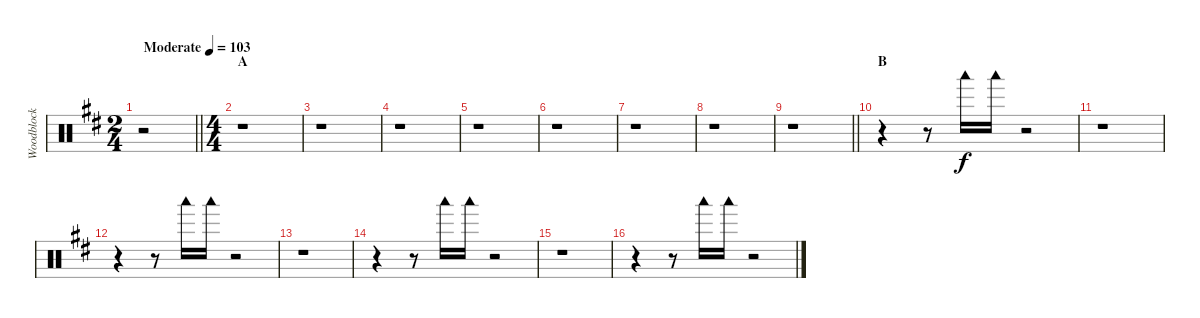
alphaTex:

\track ("Woodblock" "Woodblock") {instrument percussion}
\staff {score}
\articulation defaults
\ts (2 4)
\tempo (103 "Moderate")
\clef neutral
\barLineRight lightlight
\ks d
r.2{dy f} |
\ts (4 4)
\section ("" "A")
r.1 |
r.1 |
r.1 |
r.1 |
r.1 |
r.1 |
r.1 |
\barLineRight lightlight
r.1 |
\section ("" "B")
r.4 r.8 "Woodblock low (hit)".16 "Woodblock low (hit)".16 r.2 |
r.1 |
r.4 r.8 "Woodblock low (hit)".16 "Woodblock low (hit)".16 r.2 |
r.1 |
r.4 r.8 "Woodblock low (hit)".16 "Woodblock low (hit)".16 r.2 |
r.1 |
r.4 r.8 "Woodblock low (hit)".16 "Woodblock low (hit)".16 r.2
